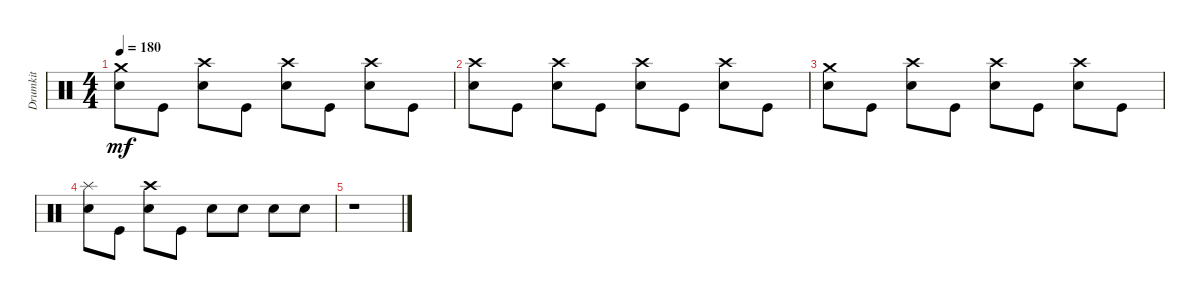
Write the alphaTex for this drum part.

\track ("Drumkit" "Drumkit") {instrument percussion}
\staff {score}
\articulation defaults
\ts (4 4)
\tempo 180
\clef neutral
\ks c
("Snare (hit) 2" "Crash medium (hit)").8{dy mf} "Kick (hit)".8 ("Snare (hit) 2" "Crash high (hit)").8 "Kick (hit)".8 ("Snare (hit) 2" "Crash high (hit)").8 "Kick (hit)".8 ("Snare (hit) 2" "Crash high (hit)").8 "Kick (hit)".8 |
("Snare (hit) 2" "Crash high (hit)").8 "Kick (hit)".8 ("Snare (hit) 2" "Crash high (hit)").8 "Kick (hit)".8 ("Snare (hit) 2" "Crash high (hit)").8 "Kick (hit)".8 ("Snare (hit) 2" "Crash high (hit)").8 "Kick (hit)".8 |
("Snare (hit) 2" "Crash medium (hit)").8 "Kick (hit)".8 ("Snare (hit) 2" "Crash high (hit)").8 "Kick (hit)".8 ("Snare (hit) 2" "Crash high (hit)").8 "Kick (hit)".8 ("Snare (hit) 2" "Crash high (hit)").8 "Kick (hit)".8 |
("Snare (hit) 2" "Splash (hit)").8 "Kick (hit)".8 ("Snare (hit) 2" "Crash high (hit)").8 "Kick (hit)".8 "Snare (hit) 2".8 "Snare (hit) 2".8 "Snare (hit) 2".8 "Snare (hit) 2".8 |
r.1
